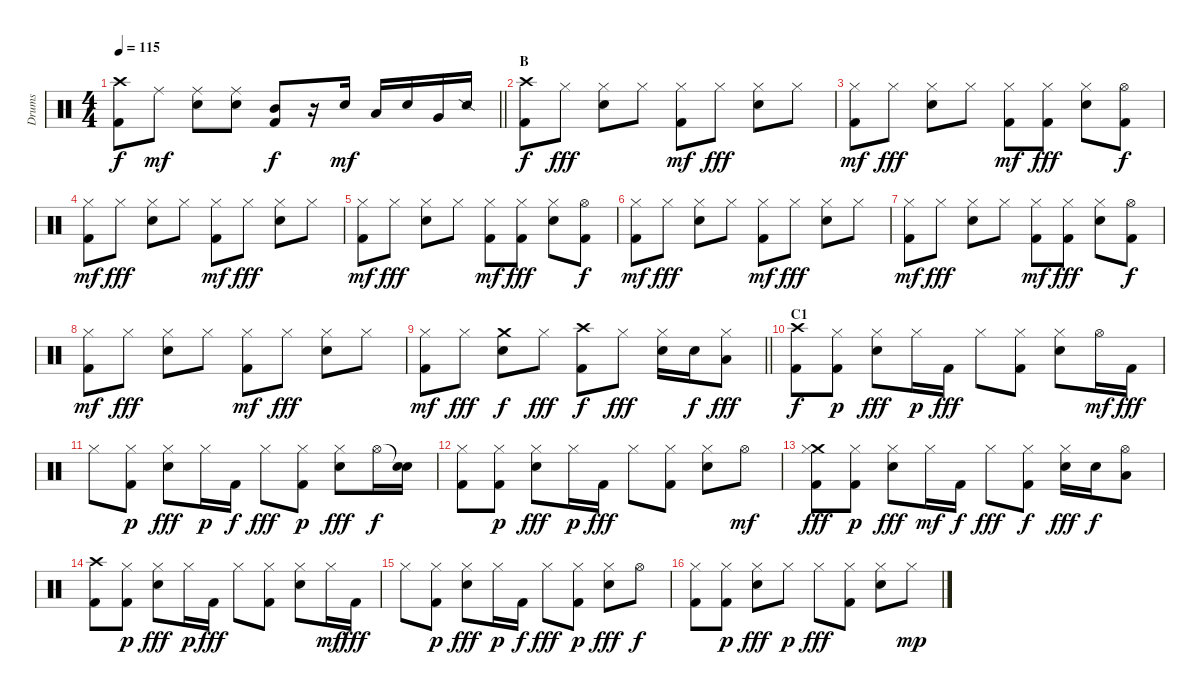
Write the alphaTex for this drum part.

\track ("Drums" "Drums") {instrument percussion}
\staff {score}
\articulation defaults
\ts (4 4)
\tempo 115
\clef neutral
\barLineRight lightlight
\ks c
("Crash high (hit)" "Kick (hit) 2").8{dy f} "Ride (middle)".8{dy mf} ("Ride (middle)" "Electric Snare (hit)").8 ("Ride (middle)" "Electric Snare (hit)").8 ("Mid Tom (hit)" "Kick (hit) 2").8{dy f} r.16 "Electric Snare (hit)".16{dy mf} "Low Tom (hit)".16 "Electric Snare (hit)".16 "Very Low Tom (hit)".16 "Snare (side stick) 2".16 |
\section ("" "B")
("Crash high (hit)" "Kick (hit) 2").8{dy f} "Hi-Hat (closed)".8{dy fff} ("Hi-Hat (closed)" "Electric Snare (hit)").8 "Hi-Hat (closed)".8 ("Hi-Hat (closed)" "Kick (hit) 2").8{dy mf} "Hi-Hat (closed)".8{dy fff} ("Hi-Hat (closed)" "Electric Snare (hit)").8 "Hi-Hat (closed)".8 |
("Hi-Hat (closed)" "Kick (hit) 2").8{dy mf} "Hi-Hat (closed)".8{dy fff} ("Hi-Hat (closed)" "Electric Snare (hit)").8 "Hi-Hat (closed)".8 ("Hi-Hat (closed)" "Kick (hit) 2").8{dy mf} ("Hi-Hat (closed)" "Kick (hit) 2").8{dy fff} ("Hi-Hat (closed)" "Electric Snare (hit)").8 ("Hi-Hat (open)" "Kick (hit) 2").8{dy f} |
("Hi-Hat (closed)" "Kick (hit) 2").8{dy mf} "Hi-Hat (closed)".8{dy fff} ("Hi-Hat (closed)" "Electric Snare (hit)").8 "Hi-Hat (closed)".8 ("Hi-Hat (closed)" "Kick (hit) 2").8{dy mf} "Hi-Hat (closed)".8{dy fff} ("Hi-Hat (closed)" "Electric Snare (hit)").8 "Hi-Hat (closed)".8 |
("Hi-Hat (closed)" "Kick (hit) 2").8{dy mf} "Hi-Hat (closed)".8{dy fff} ("Hi-Hat (closed)" "Electric Snare (hit)").8 "Hi-Hat (closed)".8 ("Hi-Hat (closed)" "Kick (hit) 2").8{dy mf} ("Hi-Hat (closed)" "Kick (hit) 2").8{dy fff} ("Hi-Hat (closed)" "Electric Snare (hit)").8 ("Hi-Hat (open)" "Kick (hit) 2").8{dy f} |
("Hi-Hat (closed)" "Kick (hit) 2").8{dy mf} "Hi-Hat (closed)".8{dy fff} ("Hi-Hat (closed)" "Electric Snare (hit)").8 "Hi-Hat (closed)".8 ("Hi-Hat (closed)" "Kick (hit) 2").8{dy mf} "Hi-Hat (closed)".8{dy fff} ("Hi-Hat (closed)" "Electric Snare (hit)").8 "Hi-Hat (closed)".8 |
("Hi-Hat (closed)" "Kick (hit) 2").8{dy mf} "Hi-Hat (closed)".8{dy fff} ("Hi-Hat (closed)" "Electric Snare (hit)").8 "Hi-Hat (closed)".8 ("Hi-Hat (closed)" "Kick (hit) 2").8{dy mf} ("Hi-Hat (closed)" "Kick (hit) 2").8{dy fff} ("Hi-Hat (closed)" "Electric Snare (hit)").8 ("Hi-Hat (open)" "Kick (hit) 2").8{dy f} |
("Hi-Hat (closed)" "Kick (hit) 2").8{dy mf} "Hi-Hat (closed)".8{dy fff} ("Hi-Hat (closed)" "Electric Snare (hit)").8 "Hi-Hat (closed)".8 ("Hi-Hat (closed)" "Kick (hit) 2").8{dy mf} "Hi-Hat (closed)".8{dy fff} ("Hi-Hat (closed)" "Electric Snare (hit)").8 "Hi-Hat (closed)".8 |
\barLineRight lightlight
("Hi-Hat (closed)" "Kick (hit) 2").8{dy mf} "Hi-Hat (closed)".8{dy fff} ("Crash medium (hit)" "Electric Snare (hit)").8{dy f} "Hi-Hat (closed)".8{dy fff} ("Crash high (hit)" "Kick (hit) 2").8{dy f} "Hi-Hat (closed)".8{dy fff} ("Hi-Hat (closed)" "Electric Snare (hit)").16 "Electric Snare (hit)".16{dy f} ("Hi-Hat (closed)" "Low Tom (hit)").8{dy fff} |
\section ("" "C1")
("Crash high (hit)" "Kick (hit) 2").8{dy f} ("Hi-Hat (closed)" "Kick (hit) 2").8{dy p} ("Hi-Hat (closed)" "Electric Snare (hit)").8{dy fff} "Hi-Hat (closed)".16{dy p} "Kick (hit) 2".16{dy fff} "Hi-Hat (closed)".8 ("Hi-Hat (closed)" "Kick (hit) 2").8 ("Hi-Hat (closed)" "Electric Snare (hit)").8 "Hi-Hat (open)".16{dy mf} "Kick (hit) 2".16{dy fff} |
"Hi-Hat (closed)".8 ("Hi-Hat (closed)" "Kick (hit) 2").8{dy p} ("Hi-Hat (closed)" "Electric Snare (hit)").8{dy fff} "Hi-Hat (closed)".16{dy p} "Kick (hit) 2".16{dy f} "Hi-Hat (closed)".8{dy fff} ("Hi-Hat (closed)" "Kick (hit) 2").8{dy p} ("Hi-Hat (closed)" "Electric Snare (hit)").8{dy fff} "Hi-Hat (open)".16{dy f} ("Snare (hit)"{t} "Electric Snare (hit)").16 |
("Hi-Hat (closed)" "Kick (hit) 2").8 ("Hi-Hat (closed)" "Kick (hit) 2").8{dy p} ("Hi-Hat (closed)" "Electric Snare (hit)").8{dy fff} "Hi-Hat (closed)".16{dy p} "Kick (hit) 2".16{dy fff} "Hi-Hat (closed)".8 ("Hi-Hat (closed)" "Kick (hit) 2").8 ("Hi-Hat (closed)" "Electric Snare (hit)").8 "Hi-Hat (open)".8{dy mf} |
("Crash medium (hit)" "Hi-Hat (closed)" "Kick (hit) 2").8{dy fff} ("Hi-Hat (closed)" "Kick (hit) 2").8{dy p} ("Hi-Hat (closed)" "Electric Snare (hit)").8{dy fff} "Hi-Hat (closed)".16{dy mf} "Kick (hit) 2".16{dy f} "Hi-Hat (closed)".8{dy fff} ("Hi-Hat (closed)" "Kick (hit) 2").8{dy f} ("Hi-Hat (closed)" "Electric Snare (hit)").16{dy fff} "Electric Snare (hit)".16{dy f} ("Hi-Hat (open)" "Low Tom (hit)").8 |
("Crash high (hit)" "Kick (hit) 2").8 ("Hi-Hat (closed)" "Kick (hit) 2").8{dy p} ("Hi-Hat (closed)" "Electric Snare (hit)").8{dy fff} "Hi-Hat (closed)".16{dy p} "Kick (hit) 2".16{dy fff} "Hi-Hat (closed)".8 ("Hi-Hat (closed)" "Kick (hit) 2").8 ("Hi-Hat (closed)" "Electric Snare (hit)").8 "Hi-Hat (closed)".16{dy mf} "Kick (hit) 2".16{dy fff} |
"Hi-Hat (closed)".8 ("Hi-Hat (closed)" "Kick (hit) 2").8{dy p} ("Hi-Hat (closed)" "Electric Snare (hit)").8{dy fff} "Hi-Hat (closed)".16{dy p} "Kick (hit) 2".16{dy f} "Hi-Hat (closed)".8{dy fff} ("Hi-Hat (closed)" "Kick (hit) 2").8{dy p} ("Hi-Hat (closed)" "Electric Snare (hit)").8{dy fff} "Hi-Hat (open)".8{dy f} |
("Hi-Hat (closed)" "Kick (hit) 2").8 ("Hi-Hat (closed)" "Kick (hit) 2").8{dy p} ("Hi-Hat (closed)" "Electric Snare (hit)").8{dy fff} "Hi-Hat (closed)".8{dy p} "Hi-Hat (closed)".8{dy fff} ("Hi-Hat (closed)" "Kick (hit) 2").8 ("Hi-Hat (closed)" "Electric Snare (hit)").8 "Hi-Hat (closed)".8{dy mp}
